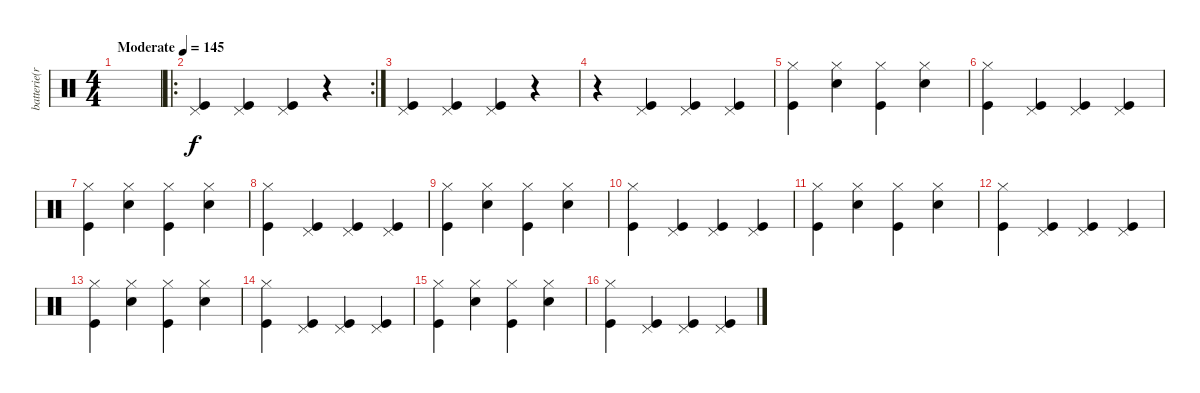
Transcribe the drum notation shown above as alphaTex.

\track ("batterie(rimbaud)" "batterie(r") {instrument percussion}
\staff {score}
\articulation defaults
\ts (4 4)
\tempo (145 "Moderate")
\clef neutral
\ks c
|
\ro
\rc 2
("Pedal Hi-Hat (hit)" "Kick (hit)").4 ("Pedal Hi-Hat (hit)" "Kick (hit)").4 ("Pedal Hi-Hat (hit)" "Kick (hit)").4 r.4 |
("Pedal Hi-Hat (hit)" "Kick (hit)").4 ("Pedal Hi-Hat (hit)" "Kick (hit)").4 ("Pedal Hi-Hat (hit)" "Kick (hit)").4 r.4 |
r.4 ("Pedal Hi-Hat (hit)" "Kick (hit)").4 ("Pedal Hi-Hat (hit)" "Kick (hit)").4 ("Pedal Hi-Hat (hit)" "Kick (hit)").4 |
("Hi-Hat (closed)" "Kick (hit)").4 ("Hi-Hat (closed)" "Snare (hit) 2").4 ("Hi-Hat (closed)" "Kick (hit)").4 ("Hi-Hat (closed)" "Snare (hit) 2").4 |
("Hi-Hat (closed)" "Kick (hit)").4 ("Pedal Hi-Hat (hit)" "Kick (hit)").4 ("Pedal Hi-Hat (hit)" "Kick (hit)").4 ("Pedal Hi-Hat (hit)" "Kick (hit)").4 |
("Hi-Hat (closed)" "Kick (hit)").4 ("Hi-Hat (closed)" "Snare (hit) 2").4 ("Hi-Hat (closed)" "Kick (hit)").4 ("Hi-Hat (closed)" "Snare (hit) 2").4 |
("Hi-Hat (closed)" "Kick (hit)").4 ("Pedal Hi-Hat (hit)" "Kick (hit)").4 ("Pedal Hi-Hat (hit)" "Kick (hit)").4 ("Pedal Hi-Hat (hit)" "Kick (hit)").4 |
("Hi-Hat (closed)" "Kick (hit)").4 ("Hi-Hat (closed)" "Snare (hit) 2").4 ("Hi-Hat (closed)" "Kick (hit)").4 ("Hi-Hat (closed)" "Snare (hit) 2").4 |
("Hi-Hat (closed)" "Kick (hit)").4 ("Pedal Hi-Hat (hit)" "Kick (hit)").4 ("Pedal Hi-Hat (hit)" "Kick (hit)").4 ("Pedal Hi-Hat (hit)" "Kick (hit)").4 |
("Hi-Hat (closed)" "Kick (hit)").4 ("Hi-Hat (closed)" "Snare (hit) 2").4 ("Hi-Hat (closed)" "Kick (hit)").4 ("Hi-Hat (closed)" "Snare (hit) 2").4 |
("Hi-Hat (closed)" "Kick (hit)").4 ("Pedal Hi-Hat (hit)" "Kick (hit)").4 ("Pedal Hi-Hat (hit)" "Kick (hit)").4 ("Pedal Hi-Hat (hit)" "Kick (hit)").4 |
("Hi-Hat (closed)" "Kick (hit)").4 ("Hi-Hat (closed)" "Snare (hit) 2").4 ("Hi-Hat (closed)" "Kick (hit)").4 ("Hi-Hat (closed)" "Snare (hit) 2").4 |
("Hi-Hat (closed)" "Kick (hit)").4 ("Pedal Hi-Hat (hit)" "Kick (hit)").4 ("Pedal Hi-Hat (hit)" "Kick (hit)").4 ("Pedal Hi-Hat (hit)" "Kick (hit)").4 |
("Hi-Hat (closed)" "Kick (hit)").4 ("Hi-Hat (closed)" "Snare (hit) 2").4 ("Hi-Hat (closed)" "Kick (hit)").4 ("Hi-Hat (closed)" "Snare (hit) 2").4 |
("Hi-Hat (closed)" "Kick (hit)").4 ("Pedal Hi-Hat (hit)" "Kick (hit)").4 ("Pedal Hi-Hat (hit)" "Kick (hit)").4 ("Pedal Hi-Hat (hit)" "Kick (hit)").4
